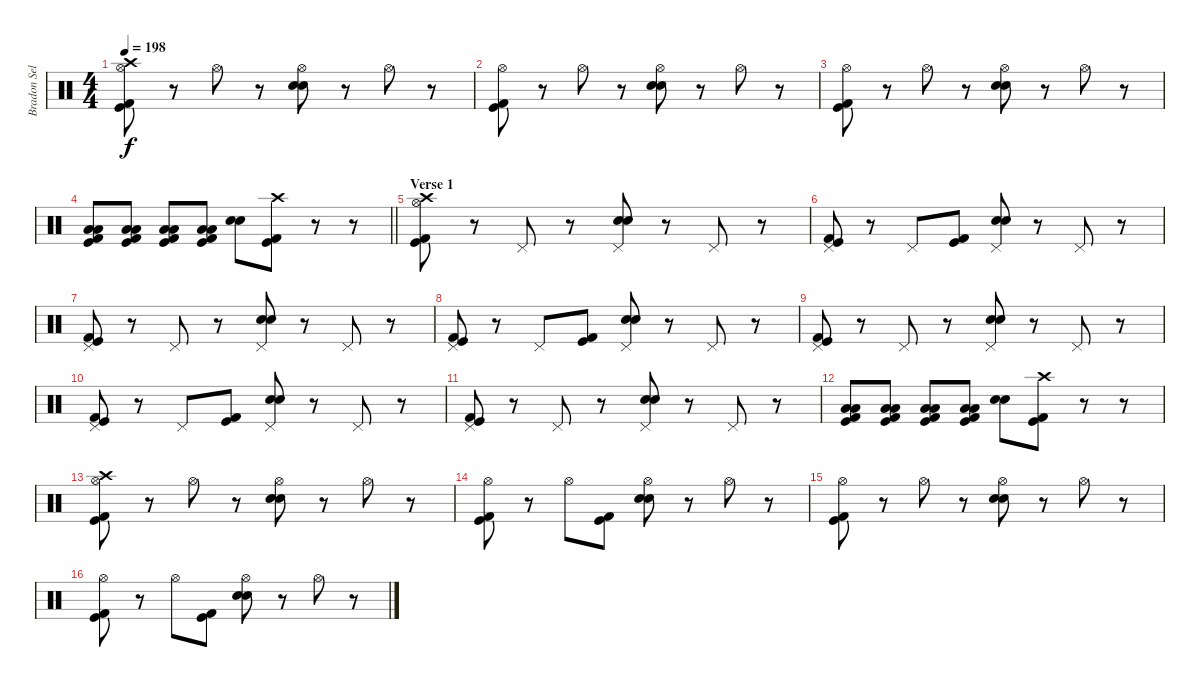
\track ("Bradon Sellar" "Bradon Sel") {instrument percussion}
\staff {score}
\articulation defaults
\ts (4 4)
\tempo 198
\clef neutral
\ks c
("Crash high (hit)" "Hi-Hat (open)" "Kick (hit) 2" "Kick (hit)").8{dy f} r.8 "Hi-Hat (open)".8 r.8 ("Hi-Hat (open)" "Electric Snare (hit)" "Snare (hit) 2").8 r.8 "Hi-Hat (open)".8 r.8 |
("Hi-Hat (open)" "Kick (hit) 2" "Kick (hit)").8 r.8 "Hi-Hat (open)".8 r.8 ("Hi-Hat (open)" "Electric Snare (hit)" "Snare (hit) 2").8 r.8 "Hi-Hat (open)".8 r.8 |
("Hi-Hat (open)" "Kick (hit) 2" "Kick (hit)").8 r.8 "Hi-Hat (open)".8 r.8 ("Hi-Hat (open)" "Electric Snare (hit)" "Snare (hit) 2").8 r.8 "Hi-Hat (open)".8 r.8 |
\barLineRight lightlight
("Low Floor Tom (hit)" "Low Floor Tom (hit)" "Kick (hit) 2" "Kick (hit)").8 ("Low Floor Tom (hit)" "Low Floor Tom (hit)" "Kick (hit) 2" "Kick (hit)").8 ("Low Floor Tom (hit)" "Low Floor Tom (hit)" "Kick (hit) 2" "Kick (hit)").8 ("Low Floor Tom (hit)" "Low Floor Tom (hit)" "Kick (hit) 2" "Kick (hit)").8 ("Snare (hit) 2" "Electric Snare (hit)").8 ("Crash high (hit)" "Kick (hit) 2" "Kick (hit)").8 r.8 r.8 |
\section ("" "Verse 1")
("Crash high (hit)" "Hi-Hat (open)" "Kick (hit) 2" "Kick (hit)").8 r.8 "Pedal Hi-Hat (hit)".8 r.8 ("Pedal Hi-Hat (hit)" "Electric Snare (hit)" "Snare (hit) 2").8 r.8 "Pedal Hi-Hat (hit)".8 r.8 |
("Pedal Hi-Hat (hit)" "Kick (hit) 2" "Kick (hit)").8 r.8 "Pedal Hi-Hat (hit)".8 ("Kick (hit) 2" "Kick (hit)").8 ("Pedal Hi-Hat (hit)" "Electric Snare (hit)" "Snare (hit) 2").8 r.8 "Pedal Hi-Hat (hit)".8 r.8 |
("Pedal Hi-Hat (hit)" "Kick (hit) 2" "Kick (hit)").8 r.8 "Pedal Hi-Hat (hit)".8 r.8 ("Pedal Hi-Hat (hit)" "Electric Snare (hit)" "Snare (hit) 2").8 r.8 "Pedal Hi-Hat (hit)".8 r.8 |
("Pedal Hi-Hat (hit)" "Kick (hit) 2" "Kick (hit)").8 r.8 "Pedal Hi-Hat (hit)".8 ("Kick (hit) 2" "Kick (hit)").8 ("Pedal Hi-Hat (hit)" "Electric Snare (hit)" "Snare (hit) 2").8 r.8 "Pedal Hi-Hat (hit)".8 r.8 |
("Pedal Hi-Hat (hit)" "Kick (hit) 2" "Kick (hit)").8 r.8 "Pedal Hi-Hat (hit)".8 r.8 ("Pedal Hi-Hat (hit)" "Electric Snare (hit)" "Snare (hit) 2").8 r.8 "Pedal Hi-Hat (hit)".8 r.8 |
("Pedal Hi-Hat (hit)" "Kick (hit) 2" "Kick (hit)").8 r.8 "Pedal Hi-Hat (hit)".8 ("Kick (hit) 2" "Kick (hit)").8 ("Pedal Hi-Hat (hit)" "Electric Snare (hit)" "Snare (hit) 2").8 r.8 "Pedal Hi-Hat (hit)".8 r.8 |
("Pedal Hi-Hat (hit)" "Kick (hit) 2" "Kick (hit)").8 r.8 "Pedal Hi-Hat (hit)".8 r.8 ("Pedal Hi-Hat (hit)" "Electric Snare (hit)" "Snare (hit) 2").8 r.8 "Pedal Hi-Hat (hit)".8 r.8 |
("Low Floor Tom (hit)" "Low Floor Tom (hit)" "Kick (hit) 2" "Kick (hit)").8 ("Low Floor Tom (hit)" "Low Floor Tom (hit)" "Kick (hit) 2" "Kick (hit)").8 ("Low Floor Tom (hit)" "Low Floor Tom (hit)" "Kick (hit) 2" "Kick (hit)").8 ("Low Floor Tom (hit)" "Low Floor Tom (hit)" "Kick (hit) 2" "Kick (hit)").8 ("Snare (hit) 2" "Electric Snare (hit)").8 ("Crash high (hit)" "Kick (hit) 2" "Kick (hit)").8 r.8 r.8 |
("Crash high (hit)" "Hi-Hat (open)" "Kick (hit) 2" "Kick (hit)").8 r.8 "Hi-Hat (open)".8 r.8 ("Hi-Hat (open)" "Electric Snare (hit)" "Snare (hit) 2").8 r.8 "Hi-Hat (open)".8 r.8 |
("Hi-Hat (open)" "Kick (hit) 2" "Kick (hit)").8 r.8 "Hi-Hat (open)".8 ("Kick (hit) 2" "Kick (hit)").8 ("Hi-Hat (open)" "Electric Snare (hit)" "Snare (hit) 2").8 r.8 "Hi-Hat (open)".8 r.8 |
("Hi-Hat (open)" "Kick (hit) 2" "Kick (hit)").8 r.8 "Hi-Hat (open)".8 r.8 ("Hi-Hat (open)" "Electric Snare (hit)" "Snare (hit) 2").8 r.8 "Hi-Hat (open)".8 r.8 |
("Hi-Hat (open)" "Kick (hit) 2" "Kick (hit)").8 r.8 "Hi-Hat (open)".8 ("Kick (hit) 2" "Kick (hit)").8 ("Hi-Hat (open)" "Electric Snare (hit)" "Snare (hit) 2").8 r.8 "Hi-Hat (open)".8 r.8
